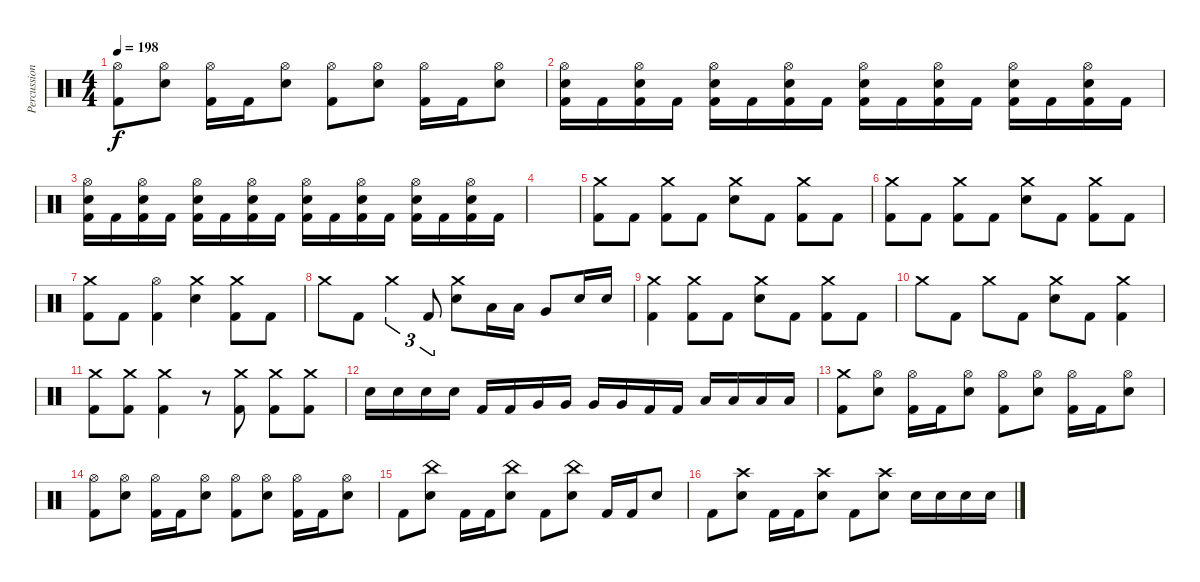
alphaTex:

\track ("Percussion" "Percussion") {instrument percussion}
\staff {score}
\articulation defaults
\ts (4 4)
\tempo 198
\clef neutral
\ks c
("Hi-Hat (open)" "Kick (hit) 2").8{dy f} ("Hi-Hat (open)" "Electric Snare (hit)").8 ("Hi-Hat (open)" "Kick (hit) 2").16 "Kick (hit) 2".16 ("Hi-Hat (open)" "Electric Snare (hit)").8 ("Hi-Hat (open)" "Kick (hit) 2").8 ("Hi-Hat (open)" "Electric Snare (hit)").8 ("Hi-Hat (open)" "Kick (hit) 2").16 "Kick (hit) 2".16 ("Hi-Hat (open)" "Electric Snare (hit)").8 |
("Hi-Hat (open)" "Electric Snare (hit)" "Kick (hit) 2").16 "Kick (hit) 2".16 ("Hi-Hat (open)" "Electric Snare (hit)" "Kick (hit) 2").16 "Kick (hit) 2".16 ("Hi-Hat (open)" "Electric Snare (hit)" "Kick (hit) 2").16 "Kick (hit) 2".16 ("Hi-Hat (open)" "Electric Snare (hit)" "Kick (hit) 2").16 "Kick (hit) 2".16 ("Hi-Hat (open)" "Electric Snare (hit)" "Kick (hit) 2").16 "Kick (hit) 2".16 ("Hi-Hat (open)" "Electric Snare (hit)" "Kick (hit) 2").16 "Kick (hit) 2".16 ("Hi-Hat (open)" "Electric Snare (hit)" "Kick (hit) 2").16 "Kick (hit) 2".16 ("Hi-Hat (open)" "Electric Snare (hit)" "Kick (hit) 2").16 "Kick (hit) 2".16 |
("Hi-Hat (open)" "Electric Snare (hit)" "Kick (hit) 2").16 "Kick (hit) 2".16 ("Hi-Hat (open)" "Electric Snare (hit)" "Kick (hit) 2").16 "Kick (hit) 2".16 ("Hi-Hat (open)" "Electric Snare (hit)" "Kick (hit) 2").16 "Kick (hit) 2".16 ("Hi-Hat (open)" "Electric Snare (hit)" "Kick (hit) 2").16 "Kick (hit) 2".16 ("Hi-Hat (open)" "Electric Snare (hit)" "Kick (hit) 2").16 "Kick (hit) 2".16 ("Hi-Hat (open)" "Electric Snare (hit)" "Kick (hit) 2").16 "Kick (hit) 2".16 ("Hi-Hat (open)" "Electric Snare (hit)" "Kick (hit) 2").16 "Kick (hit) 2".16 ("Hi-Hat (open)" "Electric Snare (hit)" "Kick (hit) 2").16 "Kick (hit) 2".16 |
|
("Crash medium (hit)" "Kick (hit) 2").8 "Kick (hit) 2".8 ("Crash medium (hit)" "Kick (hit) 2").8 "Kick (hit) 2".8 ("Crash medium (hit)" "Electric Snare (hit)").8 "Kick (hit) 2".8 ("Crash medium (hit)" "Kick (hit) 2").8 "Kick (hit) 2".8 |
("Crash medium (hit)" "Kick (hit) 2").8 "Kick (hit) 2".8 ("Crash medium (hit)" "Kick (hit) 2").8 "Kick (hit) 2".8 ("Crash medium (hit)" "Electric Snare (hit)").8 "Kick (hit) 2".8 ("Crash medium (hit)" "Kick (hit) 2").8 "Kick (hit) 2".8 |
("Crash medium (hit)" "Kick (hit) 2").8 "Kick (hit) 2".8 ("Hi-Hat (open)" "Kick (hit) 2").4 ("Crash medium (hit)" "Electric Snare (hit)").4 ("Crash medium (hit)" "Kick (hit) 2").8 "Kick (hit) 2".8 |
"Crash medium (hit)".8 "Kick (hit) 2".8 "Crash medium (hit)".4{tu (3 2)} "Kick (hit) 2".8{tu (3 2)} ("Crash medium (hit)" "Electric Snare (hit)").8 "Low Tom (hit)".16 "Low Tom (hit)".16 "Very Low Tom (hit)".8 "Electric Snare (hit)".16 "Electric Snare (hit)".16 |
("Crash medium (hit)" "Kick (hit) 2").4 ("Crash medium (hit)" "Kick (hit) 2").8 "Kick (hit) 2".8 ("Crash medium (hit)" "Electric Snare (hit)").8 "Kick (hit) 2".8 ("Crash medium (hit)" "Kick (hit) 2").8 "Kick (hit) 2".8 |
"Crash medium (hit)".8 "Kick (hit) 2".8 "Crash medium (hit)".8 "Kick (hit) 2".8 ("Crash medium (hit)" "Electric Snare (hit)").8 "Kick (hit) 2".8 ("Crash medium (hit)" "Kick (hit) 2").4 |
("Crash medium (hit)" "Kick (hit) 2").8 ("Crash medium (hit)" "Kick (hit) 2").8 ("Crash medium (hit)" "Kick (hit) 2").4 r.8 ("Crash medium (hit)" "Kick (hit) 2").8 ("Crash medium (hit)" "Kick (hit) 2").8 ("Crash medium (hit)" "Kick (hit) 2").8 |
"Electric Snare (hit)".16 "Electric Snare (hit)".16 "Electric Snare (hit)".16 "Electric Snare (hit)".16 "Kick (hit) 2".16 "Kick (hit) 2".16 "Very Low Tom (hit)".16 "Very Low Tom (hit)".16 "Very Low Tom (hit)".16 "Very Low Tom (hit)".16 "Kick (hit) 2".16 "Kick (hit) 2".16 "Low Floor Tom (hit)".16 "Low Floor Tom (hit)".16 "Low Floor Tom (hit)".16 "Low Floor Tom (hit)".16 |
("Crash medium (hit)" "Kick (hit) 2").8 ("Hi-Hat (open)" "Electric Snare (hit)").8 ("Hi-Hat (open)" "Kick (hit) 2").16 "Kick (hit) 2".16 ("Hi-Hat (open)" "Electric Snare (hit)").8 ("Hi-Hat (open)" "Kick (hit) 2").8 ("Hi-Hat (open)" "Electric Snare (hit)").8 ("Hi-Hat (open)" "Kick (hit) 2").16 "Kick (hit) 2".16 ("Hi-Hat (open)" "Electric Snare (hit)").8 |
("Hi-Hat (open)" "Kick (hit) 2").8 ("Hi-Hat (open)" "Electric Snare (hit)").8 ("Hi-Hat (open)" "Kick (hit) 2").16 "Kick (hit) 2".16 ("Hi-Hat (open)" "Electric Snare (hit)").8 ("Hi-Hat (open)" "Kick (hit) 2").8 ("Hi-Hat (open)" "Electric Snare (hit)").8 ("Hi-Hat (open)" "Kick (hit) 2").16 "Kick (hit) 2".16 ("Hi-Hat (open)" "Electric Snare (hit)").8 |
"Kick (hit) 2".8 ("China (hit)" "Electric Snare (hit)").8 "Kick (hit) 2".16 "Kick (hit) 2".16 ("China (hit)" "Electric Snare (hit)").8 "Kick (hit) 2".8 ("China (hit)" "Electric Snare (hit)").8 "Kick (hit) 2".16 "Kick (hit) 2".16 "Electric Snare (hit)".8 |
"Kick (hit) 2".8 ("Crash high (hit)" "Electric Snare (hit)").8 "Kick (hit) 2".16 "Kick (hit) 2".16 ("Crash high (hit)" "Electric Snare (hit)").8 "Kick (hit) 2".8 ("Crash high (hit)" "Electric Snare (hit)").8 "Electric Snare (hit)".16 "Electric Snare (hit)".16 "Electric Snare (hit)".16 "Electric Snare (hit)".16
